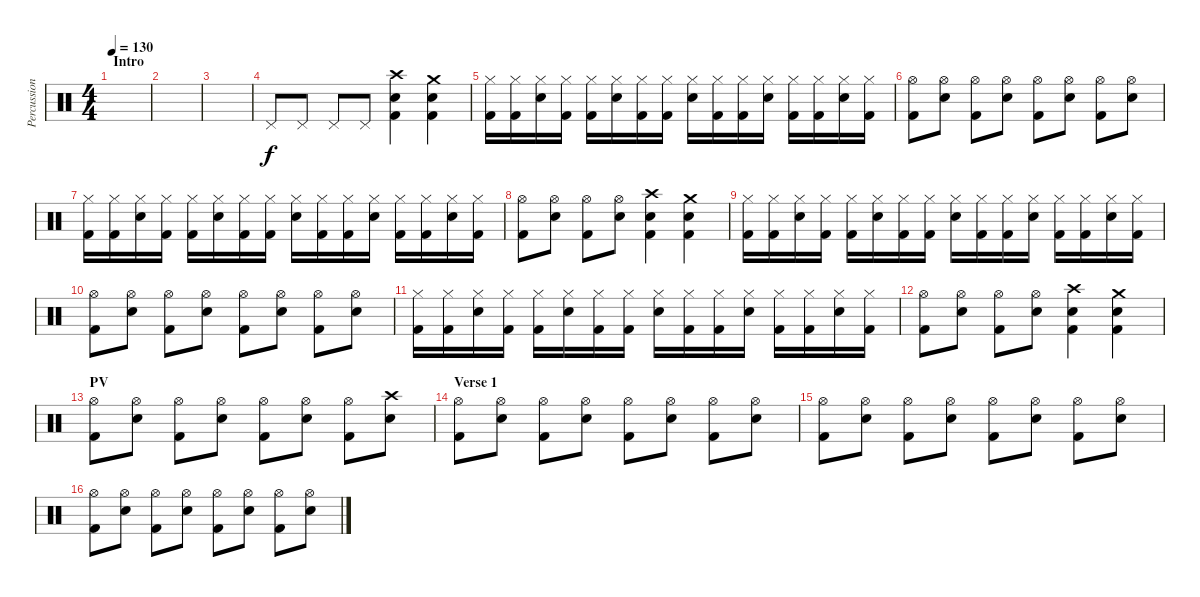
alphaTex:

\track ("Percussion" "Percussion") {instrument percussion}
\staff {score}
\articulation defaults
\ts (4 4)
\section ("" "Intro")
\tempo 130
\clef neutral
\ks c
|
|
|
"Pedal Hi-Hat (hit)".8 "Pedal Hi-Hat (hit)".8 "Pedal Hi-Hat (hit)".8 "Pedal Hi-Hat (hit)".8 ("Crash high (hit)" "Electric Snare (hit)" "Kick (hit) 2").4 ("Crash medium (hit)" "Electric Snare (hit)" "Kick (hit) 2").4 |
("Hi-Hat (closed)" "Kick (hit) 2").16 ("Hi-Hat (closed)" "Kick (hit) 2").16 ("Hi-Hat (closed)" "Electric Snare (hit)").16 ("Hi-Hat (closed)" "Kick (hit) 2").16 ("Hi-Hat (closed)" "Kick (hit) 2").16 ("Hi-Hat (closed)" "Electric Snare (hit)").16 ("Hi-Hat (closed)" "Kick (hit) 2").16 ("Hi-Hat (closed)" "Kick (hit) 2").16 ("Hi-Hat (closed)" "Electric Snare (hit)").16 ("Hi-Hat (closed)" "Kick (hit) 2").16 ("Hi-Hat (closed)" "Kick (hit) 2").16 ("Hi-Hat (closed)" "Electric Snare (hit)").16 ("Hi-Hat (closed)" "Kick (hit) 2").16 ("Hi-Hat (closed)" "Kick (hit) 2").16 ("Hi-Hat (closed)" "Electric Snare (hit)").16 ("Hi-Hat (closed)" "Kick (hit) 2").16 |
("Hi-Hat (open)" "Kick (hit) 2").8 ("Hi-Hat (open)" "Electric Snare (hit)").8 ("Hi-Hat (open)" "Kick (hit) 2").8 ("Hi-Hat (open)" "Electric Snare (hit)").8 ("Hi-Hat (open)" "Kick (hit) 2").8 ("Hi-Hat (open)" "Electric Snare (hit)").8 ("Hi-Hat (open)" "Kick (hit) 2").8 ("Hi-Hat (open)" "Electric Snare (hit)").8 |
("Hi-Hat (closed)" "Kick (hit) 2").16 ("Hi-Hat (closed)" "Kick (hit) 2").16 ("Hi-Hat (closed)" "Electric Snare (hit)").16 ("Hi-Hat (closed)" "Kick (hit) 2").16 ("Hi-Hat (closed)" "Kick (hit) 2").16 ("Hi-Hat (closed)" "Electric Snare (hit)").16 ("Hi-Hat (closed)" "Kick (hit) 2").16 ("Hi-Hat (closed)" "Kick (hit) 2").16 ("Hi-Hat (closed)" "Electric Snare (hit)").16 ("Hi-Hat (closed)" "Kick (hit) 2").16 ("Hi-Hat (closed)" "Kick (hit) 2").16 ("Hi-Hat (closed)" "Electric Snare (hit)").16 ("Hi-Hat (closed)" "Kick (hit) 2").16 ("Hi-Hat (closed)" "Kick (hit) 2").16 ("Hi-Hat (closed)" "Electric Snare (hit)").16 ("Hi-Hat (closed)" "Kick (hit) 2").16 |
("Hi-Hat (open)" "Kick (hit) 2").8 ("Hi-Hat (open)" "Electric Snare (hit)").8 ("Hi-Hat (open)" "Kick (hit) 2").8 ("Hi-Hat (open)" "Electric Snare (hit)").8 ("Crash high (hit)" "Electric Snare (hit)" "Kick (hit) 2").4 ("Crash medium (hit)" "Electric Snare (hit)" "Kick (hit) 2").4 |
("Hi-Hat (closed)" "Kick (hit) 2").16 ("Hi-Hat (closed)" "Kick (hit) 2").16 ("Hi-Hat (closed)" "Electric Snare (hit)").16 ("Hi-Hat (closed)" "Kick (hit) 2").16 ("Hi-Hat (closed)" "Kick (hit) 2").16 ("Hi-Hat (closed)" "Electric Snare (hit)").16 ("Hi-Hat (closed)" "Kick (hit) 2").16 ("Hi-Hat (closed)" "Kick (hit) 2").16 ("Hi-Hat (closed)" "Electric Snare (hit)").16 ("Hi-Hat (closed)" "Kick (hit) 2").16 ("Hi-Hat (closed)" "Kick (hit) 2").16 ("Hi-Hat (closed)" "Electric Snare (hit)").16 ("Hi-Hat (closed)" "Kick (hit) 2").16 ("Hi-Hat (closed)" "Kick (hit) 2").16 ("Hi-Hat (closed)" "Electric Snare (hit)").16 ("Hi-Hat (closed)" "Kick (hit) 2").16 |
("Hi-Hat (open)" "Kick (hit) 2").8 ("Hi-Hat (open)" "Electric Snare (hit)").8 ("Hi-Hat (open)" "Kick (hit) 2").8 ("Hi-Hat (open)" "Electric Snare (hit)").8 ("Hi-Hat (open)" "Kick (hit) 2").8 ("Hi-Hat (open)" "Electric Snare (hit)").8 ("Hi-Hat (open)" "Kick (hit) 2").8 ("Hi-Hat (open)" "Electric Snare (hit)").8 |
("Hi-Hat (closed)" "Kick (hit) 2").16 ("Hi-Hat (closed)" "Kick (hit) 2").16 ("Hi-Hat (closed)" "Electric Snare (hit)").16 ("Hi-Hat (closed)" "Kick (hit) 2").16 ("Hi-Hat (closed)" "Kick (hit) 2").16 ("Hi-Hat (closed)" "Electric Snare (hit)").16 ("Hi-Hat (closed)" "Kick (hit) 2").16 ("Hi-Hat (closed)" "Kick (hit) 2").16 ("Hi-Hat (closed)" "Electric Snare (hit)").16 ("Hi-Hat (closed)" "Kick (hit) 2").16 ("Hi-Hat (closed)" "Kick (hit) 2").16 ("Hi-Hat (closed)" "Electric Snare (hit)").16 ("Hi-Hat (closed)" "Kick (hit) 2").16 ("Hi-Hat (closed)" "Kick (hit) 2").16 ("Hi-Hat (closed)" "Electric Snare (hit)").16 ("Hi-Hat (closed)" "Kick (hit) 2").16 |
("Hi-Hat (open)" "Kick (hit) 2").8 ("Hi-Hat (open)" "Electric Snare (hit)").8 ("Hi-Hat (open)" "Kick (hit) 2").8 ("Hi-Hat (open)" "Electric Snare (hit)").8 ("Crash high (hit)" "Electric Snare (hit)" "Kick (hit) 2").4 ("Crash medium (hit)" "Electric Snare (hit)" "Kick (hit) 2").4 |
\section ("" "PV")
("Hi-Hat (open)" "Kick (hit) 2").8 ("Hi-Hat (open)" "Electric Snare (hit)").8 ("Hi-Hat (open)" "Kick (hit) 2").8 ("Hi-Hat (open)" "Electric Snare (hit)").8 ("Hi-Hat (open)" "Kick (hit) 2").8 ("Hi-Hat (open)" "Electric Snare (hit)").8 ("Hi-Hat (open)" "Kick (hit) 2").8 ("Crash high (hit)" "Electric Snare (hit)").8 |
\section ("" "Verse 1")
("Hi-Hat (open)" "Kick (hit) 2").8 ("Hi-Hat (open)" "Electric Snare (hit)").8 ("Hi-Hat (open)" "Kick (hit) 2").8 ("Hi-Hat (open)" "Electric Snare (hit)").8 ("Hi-Hat (open)" "Kick (hit) 2").8 ("Hi-Hat (open)" "Electric Snare (hit)").8 ("Hi-Hat (open)" "Kick (hit) 2").8 ("Hi-Hat (open)" "Electric Snare (hit)").8 |
("Hi-Hat (open)" "Kick (hit) 2").8 ("Hi-Hat (open)" "Electric Snare (hit)").8 ("Hi-Hat (open)" "Kick (hit) 2").8 ("Hi-Hat (open)" "Electric Snare (hit)").8 ("Hi-Hat (open)" "Kick (hit) 2").8 ("Hi-Hat (open)" "Electric Snare (hit)").8 ("Hi-Hat (open)" "Kick (hit) 2").8 ("Hi-Hat (open)" "Electric Snare (hit)").8 |
("Hi-Hat (open)" "Kick (hit) 2").8 ("Hi-Hat (open)" "Electric Snare (hit)").8 ("Hi-Hat (open)" "Kick (hit) 2").8 ("Hi-Hat (open)" "Electric Snare (hit)").8 ("Hi-Hat (open)" "Kick (hit) 2").8 ("Hi-Hat (open)" "Electric Snare (hit)").8 ("Hi-Hat (open)" "Kick (hit) 2").8 ("Hi-Hat (open)" "Electric Snare (hit)").8
